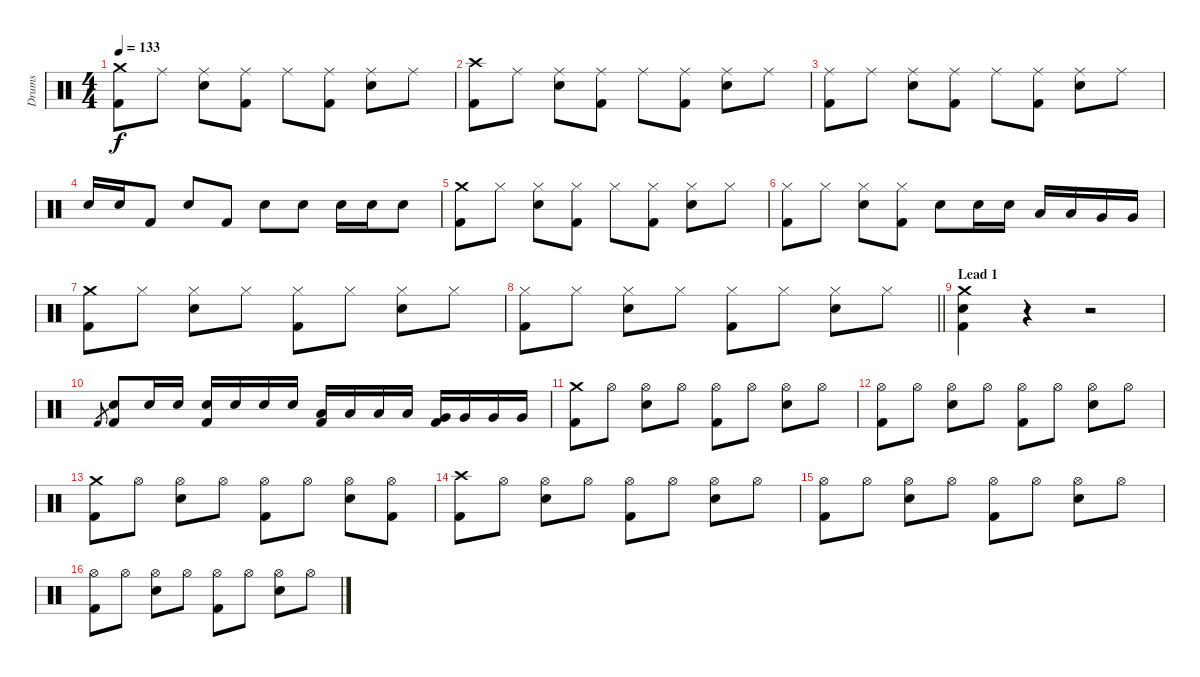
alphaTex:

\track ("Drums" "Drums") {instrument percussion}
\staff {score}
\articulation defaults
\ts (4 4)
\tempo 133
\clef neutral
\ks c
("Crash medium (hit)" "Kick (hit) 2").8{dy f} "Ride (middle)".8 ("Ride (middle)" "Snare (hit) 2").8 ("Ride (middle)" "Kick (hit) 2").8 "Ride (middle)".8 ("Ride (middle)" "Kick (hit) 2").8 ("Ride (middle)" "Snare (hit) 2").8 "Ride (middle)".8 |
("Crash high (hit)" "Kick (hit) 2").8 "Ride (middle)".8 ("Ride (middle)" "Snare (hit) 2").8 ("Ride (middle)" "Kick (hit) 2").8 "Ride (middle)".8 ("Ride (middle)" "Kick (hit) 2").8 ("Ride (middle)" "Snare (hit) 2").8 "Ride (middle)".8 |
("Ride (middle)" "Kick (hit) 2").8 "Ride (middle)".8 ("Ride (middle)" "Snare (hit) 2").8 ("Ride (middle)" "Kick (hit) 2").8 "Ride (middle)".8 ("Ride (middle)" "Kick (hit) 2").8 ("Ride (middle)" "Snare (hit) 2").8 "Ride (middle)".8 |
"Snare (hit) 2".16 "Snare (hit) 2".16 "Kick (hit) 2".8 "Snare (hit) 2".8 "Kick (hit) 2".8 "Snare (hit) 2".8 "Snare (hit) 2".8 "Snare (hit) 2".16 "Snare (hit) 2".16 "Snare (hit) 2".8 |
("Crash medium (hit)" "Kick (hit) 2").8 "Hi-Hat (closed)".8 ("Hi-Hat (closed)" "Snare (hit) 2").8 ("Hi-Hat (closed)" "Kick (hit) 2").8 "Hi-Hat (closed)".8 ("Hi-Hat (closed)" "Kick (hit) 2").8 ("Hi-Hat (closed)" "Snare (hit) 2").8 "Hi-Hat (closed)".8 |
("Hi-Hat (closed)" "Kick (hit) 2").8 "Hi-Hat (closed)".8 ("Hi-Hat (closed)" "Snare (hit) 2").8 ("Hi-Hat (closed)" "Kick (hit) 2").8 "Snare (hit) 2".8 "Snare (hit) 2".16 "Snare (hit) 2".16 "Low Tom (hit)".16 "Low Tom (hit)".16 "Very Low Tom (hit)".16 "Very Low Tom (hit)".16 |
("Crash medium (hit)" "Kick (hit) 2").8 "Hi-Hat (closed)".8 ("Hi-Hat (closed)" "Snare (hit) 2").8 "Hi-Hat (closed)".8 ("Hi-Hat (closed)" "Kick (hit) 2").8 "Hi-Hat (closed)".8 ("Hi-Hat (closed)" "Snare (hit) 2").8 "Hi-Hat (closed)".8 |
\barLineRight lightlight
("Hi-Hat (closed)" "Kick (hit) 2").8 "Hi-Hat (closed)".8 ("Hi-Hat (closed)" "Snare (hit) 2").8 "Hi-Hat (closed)".8 ("Hi-Hat (closed)" "Kick (hit) 2").8 "Hi-Hat (closed)".8 ("Hi-Hat (closed)" "Snare (hit) 2").8 "Hi-Hat (closed)".8 |
\section ("" "Lead 1")
("Crash medium (hit)" "Snare (hit) 2" "Kick (hit) 2").4 r.4{volume 0} r.2 |
"Kick (hit) 2".8{gr} ("Snare (hit) 2" "Kick (hit) 2").8{volume 13} "Snare (hit) 2".16 "Snare (hit) 2".16 ("Snare (hit) 2" "Kick (hit) 2").16 "Snare (hit) 2".16 "Snare (hit) 2".16 "Snare (hit) 2".16 ("Low Tom (hit)" "Kick (hit) 2").16 "Low Tom (hit)".16 "Low Tom (hit)".16 "Low Tom (hit)".16 ("Very Low Tom (hit)" "Kick (hit) 2").16 "Very Low Tom (hit)".16 "Very Low Tom (hit)".16 "Very Low Tom (hit)".16 |
("Crash medium (hit)" "Kick (hit) 2").8 "Hi-Hat (open)".8 ("Hi-Hat (open)" "Snare (hit) 2").8 "Hi-Hat (open)".8 ("Hi-Hat (open)" "Kick (hit) 2").8 "Hi-Hat (open)".8 ("Hi-Hat (open)" "Snare (hit) 2").8 "Hi-Hat (open)".8 |
("Hi-Hat (open)" "Kick (hit) 2").8 "Hi-Hat (open)".8 ("Hi-Hat (open)" "Snare (hit) 2").8 "Hi-Hat (open)".8 ("Hi-Hat (open)" "Kick (hit) 2").8 "Hi-Hat (open)".8 ("Hi-Hat (open)" "Snare (hit) 2").8 "Hi-Hat (open)".8 |
("Crash medium (hit)" "Kick (hit) 2").8 "Hi-Hat (open)".8 ("Hi-Hat (open)" "Snare (hit) 2").8 "Hi-Hat (open)".8 ("Hi-Hat (open)" "Kick (hit) 2").8 "Hi-Hat (open)".8 ("Hi-Hat (open)" "Snare (hit) 2").8 ("Hi-Hat (open)" "Kick (hit) 2").8 |
("Crash high (hit)" "Kick (hit) 2").8 "Hi-Hat (open)".8 ("Hi-Hat (open)" "Snare (hit) 2").8 "Hi-Hat (open)".8 ("Hi-Hat (open)" "Kick (hit) 2").8 "Hi-Hat (open)".8 ("Hi-Hat (open)" "Snare (hit) 2").8 "Hi-Hat (open)".8 |
("Hi-Hat (open)" "Kick (hit) 2").8 "Hi-Hat (open)".8 ("Hi-Hat (open)" "Snare (hit) 2").8 "Hi-Hat (open)".8 ("Hi-Hat (open)" "Kick (hit) 2").8 "Hi-Hat (open)".8 ("Hi-Hat (open)" "Snare (hit) 2").8 "Hi-Hat (open)".8 |
("Hi-Hat (open)" "Kick (hit) 2").8 "Hi-Hat (open)".8 ("Hi-Hat (open)" "Snare (hit) 2").8 "Hi-Hat (open)".8 ("Hi-Hat (open)" "Kick (hit) 2").8 "Hi-Hat (open)".8 ("Hi-Hat (open)" "Snare (hit) 2").8 "Hi-Hat (open)".8
